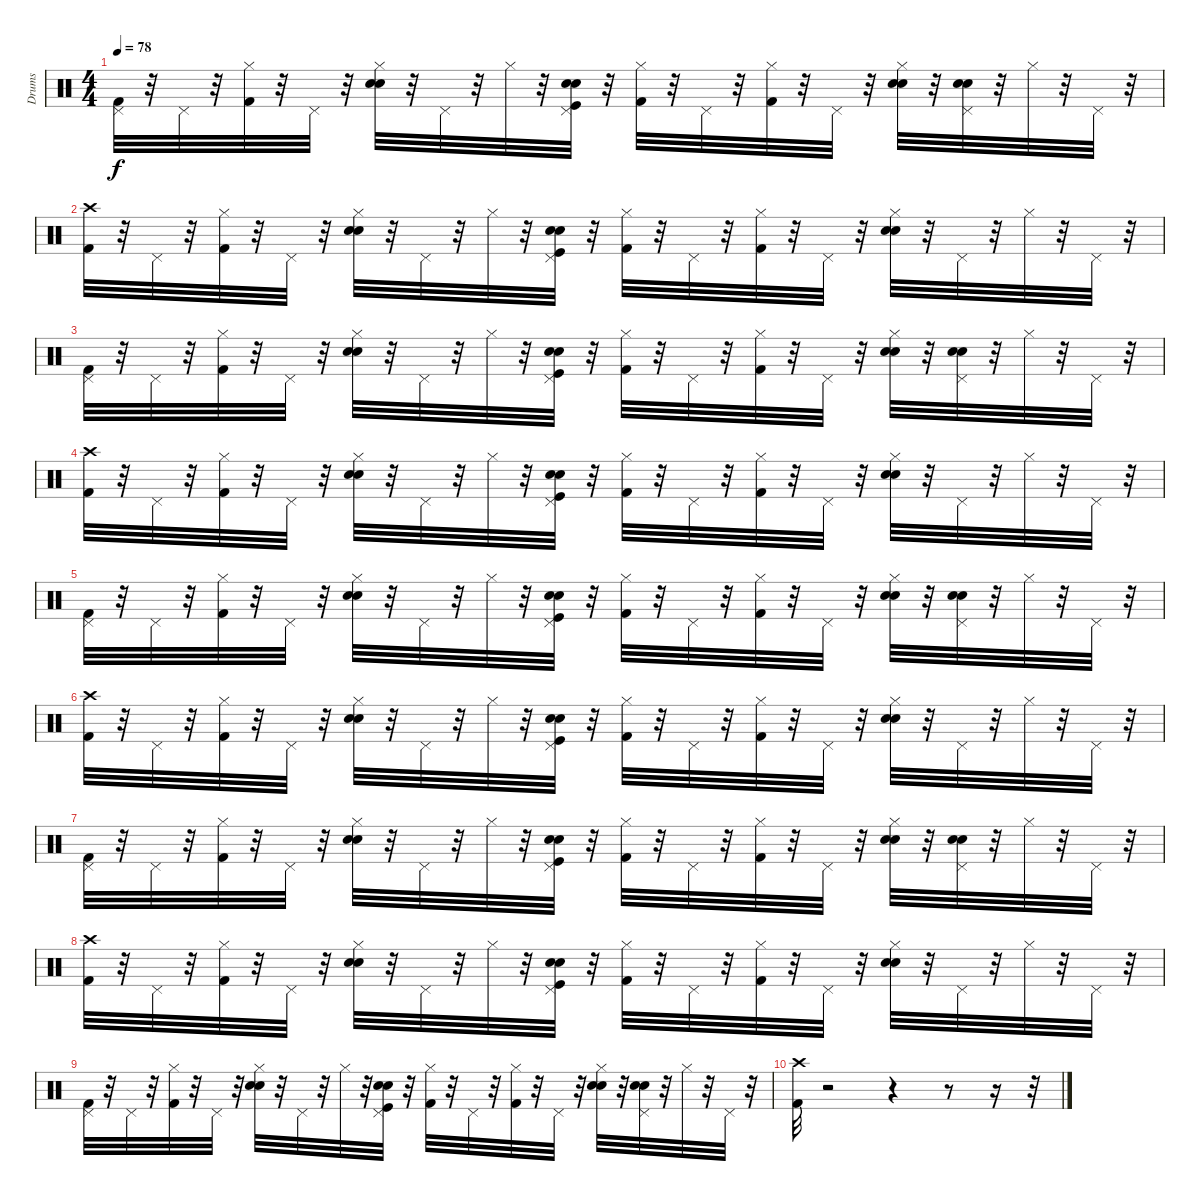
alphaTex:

\track ("Drums" "Drums") {instrument percussion}
\staff {score}
\articulation defaults
\ts (4 4)
\tempo 78
\clef neutral
\ks c
("Pedal Hi-Hat (hit)" "Kick (hit) 2").32{dy f} r.32 "Pedal Hi-Hat (hit)".32 r.32 ("Hi-Hat (closed)" "Kick (hit) 2").32 r.32 "Pedal Hi-Hat (hit)".32 r.32 ("Hi-Hat (closed)" "Hand Clap (hit)" "Electric Snare (hit)").32 r.32 "Pedal Hi-Hat (hit)".32 r.32 "Hi-Hat (closed)".32 r.32 ("Hand Clap (hit)" "Electric Snare (hit)" "Pedal Hi-Hat (hit)" "Kick (hit)").32 r.32 ("Hi-Hat (closed)" "Kick (hit) 2").32 r.32 "Pedal Hi-Hat (hit)".32 r.32 ("Hi-Hat (closed)" "Kick (hit) 2").32 r.32 "Pedal Hi-Hat (hit)".32 r.32 ("Hi-Hat (closed)" "Hand Clap (hit)" "Electric Snare (hit)").32 r.32 ("Hand Clap (hit)" "Electric Snare (hit)" "Pedal Hi-Hat (hit)").32 r.32 "Hi-Hat (closed)".32 r.32 "Pedal Hi-Hat (hit)".32 r.32 |
("Crash high (hit)" "Kick (hit) 2").32 r.32 "Pedal Hi-Hat (hit)".32 r.32 ("Hi-Hat (closed)" "Kick (hit) 2").32 r.32 "Pedal Hi-Hat (hit)".32 r.32 ("Hi-Hat (closed)" "Hand Clap (hit)" "Electric Snare (hit)").32 r.32 "Pedal Hi-Hat (hit)".32 r.32 "Hi-Hat (closed)".32 r.32 ("Hand Clap (hit)" "Electric Snare (hit)" "Pedal Hi-Hat (hit)" "Kick (hit)").32 r.32 ("Hi-Hat (closed)" "Kick (hit) 2").32 r.32 "Pedal Hi-Hat (hit)".32 r.32 ("Hi-Hat (closed)" "Kick (hit) 2").32 r.32 "Pedal Hi-Hat (hit)".32 r.32 ("Hi-Hat (closed)" "Hand Clap (hit)" "Electric Snare (hit)").32 r.32 "Pedal Hi-Hat (hit)".32 r.32 "Hi-Hat (closed)".32 r.32 "Pedal Hi-Hat (hit)".32 r.32 |
("Pedal Hi-Hat (hit)" "Kick (hit) 2").32 r.32 "Pedal Hi-Hat (hit)".32 r.32 ("Hi-Hat (closed)" "Kick (hit) 2").32 r.32 "Pedal Hi-Hat (hit)".32 r.32 ("Hi-Hat (closed)" "Hand Clap (hit)" "Electric Snare (hit)").32 r.32 "Pedal Hi-Hat (hit)".32 r.32 "Hi-Hat (closed)".32 r.32 ("Hand Clap (hit)" "Electric Snare (hit)" "Pedal Hi-Hat (hit)" "Kick (hit)").32 r.32 ("Hi-Hat (closed)" "Kick (hit) 2").32 r.32 "Pedal Hi-Hat (hit)".32 r.32 ("Hi-Hat (closed)" "Kick (hit) 2").32 r.32 "Pedal Hi-Hat (hit)".32 r.32 ("Hi-Hat (closed)" "Hand Clap (hit)" "Electric Snare (hit)").32 r.32 ("Hand Clap (hit)" "Electric Snare (hit)" "Pedal Hi-Hat (hit)").32 r.32 "Hi-Hat (closed)".32 r.32 "Pedal Hi-Hat (hit)".32 r.32 |
("Crash high (hit)" "Kick (hit) 2").32 r.32 "Pedal Hi-Hat (hit)".32 r.32 ("Hi-Hat (closed)" "Kick (hit) 2").32 r.32 "Pedal Hi-Hat (hit)".32 r.32 ("Hi-Hat (closed)" "Hand Clap (hit)" "Electric Snare (hit)").32 r.32 "Pedal Hi-Hat (hit)".32 r.32 "Hi-Hat (closed)".32 r.32 ("Hand Clap (hit)" "Electric Snare (hit)" "Pedal Hi-Hat (hit)" "Kick (hit)").32 r.32 ("Hi-Hat (closed)" "Kick (hit) 2").32 r.32 "Pedal Hi-Hat (hit)".32 r.32 ("Hi-Hat (closed)" "Kick (hit) 2").32 r.32 "Pedal Hi-Hat (hit)".32 r.32 ("Hi-Hat (closed)" "Hand Clap (hit)" "Electric Snare (hit)").32 r.32 "Pedal Hi-Hat (hit)".32 r.32 "Hi-Hat (closed)".32 r.32 "Pedal Hi-Hat (hit)".32 r.32 |
("Pedal Hi-Hat (hit)" "Kick (hit) 2").32 r.32 "Pedal Hi-Hat (hit)".32 r.32 ("Hi-Hat (closed)" "Kick (hit) 2").32 r.32 "Pedal Hi-Hat (hit)".32 r.32 ("Hi-Hat (closed)" "Hand Clap (hit)" "Electric Snare (hit)").32 r.32 "Pedal Hi-Hat (hit)".32 r.32 "Hi-Hat (closed)".32 r.32 ("Hand Clap (hit)" "Electric Snare (hit)" "Pedal Hi-Hat (hit)" "Kick (hit)").32 r.32 ("Hi-Hat (closed)" "Kick (hit) 2").32 r.32 "Pedal Hi-Hat (hit)".32 r.32 ("Hi-Hat (closed)" "Kick (hit) 2").32 r.32 "Pedal Hi-Hat (hit)".32 r.32 ("Hi-Hat (closed)" "Hand Clap (hit)" "Electric Snare (hit)").32 r.32 ("Hand Clap (hit)" "Electric Snare (hit)" "Pedal Hi-Hat (hit)").32 r.32 "Hi-Hat (closed)".32 r.32 "Pedal Hi-Hat (hit)".32 r.32 |
("Crash high (hit)" "Kick (hit) 2").32 r.32 "Pedal Hi-Hat (hit)".32 r.32 ("Hi-Hat (closed)" "Kick (hit) 2").32 r.32 "Pedal Hi-Hat (hit)".32 r.32 ("Hi-Hat (closed)" "Hand Clap (hit)" "Electric Snare (hit)").32 r.32 "Pedal Hi-Hat (hit)".32 r.32 "Hi-Hat (closed)".32 r.32 ("Hand Clap (hit)" "Electric Snare (hit)" "Pedal Hi-Hat (hit)" "Kick (hit)").32 r.32 ("Hi-Hat (closed)" "Kick (hit) 2").32 r.32 "Pedal Hi-Hat (hit)".32 r.32 ("Hi-Hat (closed)" "Kick (hit) 2").32 r.32 "Pedal Hi-Hat (hit)".32 r.32 ("Hi-Hat (closed)" "Hand Clap (hit)" "Electric Snare (hit)").32 r.32 "Pedal Hi-Hat (hit)".32 r.32 "Hi-Hat (closed)".32 r.32 "Pedal Hi-Hat (hit)".32 r.32 |
("Pedal Hi-Hat (hit)" "Kick (hit) 2").32 r.32 "Pedal Hi-Hat (hit)".32 r.32 ("Hi-Hat (closed)" "Kick (hit) 2").32 r.32 "Pedal Hi-Hat (hit)".32 r.32 ("Hi-Hat (closed)" "Hand Clap (hit)" "Electric Snare (hit)").32 r.32 "Pedal Hi-Hat (hit)".32 r.32 "Hi-Hat (closed)".32 r.32 ("Hand Clap (hit)" "Electric Snare (hit)" "Pedal Hi-Hat (hit)" "Kick (hit)").32 r.32 ("Hi-Hat (closed)" "Kick (hit) 2").32 r.32 "Pedal Hi-Hat (hit)".32 r.32 ("Hi-Hat (closed)" "Kick (hit) 2").32 r.32 "Pedal Hi-Hat (hit)".32 r.32 ("Hi-Hat (closed)" "Hand Clap (hit)" "Electric Snare (hit)").32 r.32 ("Hand Clap (hit)" "Electric Snare (hit)" "Pedal Hi-Hat (hit)").32 r.32 "Hi-Hat (closed)".32 r.32 "Pedal Hi-Hat (hit)".32 r.32 |
("Crash high (hit)" "Kick (hit) 2").32 r.32 "Pedal Hi-Hat (hit)".32 r.32 ("Hi-Hat (closed)" "Kick (hit) 2").32 r.32 "Pedal Hi-Hat (hit)".32 r.32 ("Hi-Hat (closed)" "Hand Clap (hit)" "Electric Snare (hit)").32 r.32 "Pedal Hi-Hat (hit)".32 r.32 "Hi-Hat (closed)".32 r.32 ("Hand Clap (hit)" "Electric Snare (hit)" "Pedal Hi-Hat (hit)" "Kick (hit)").32 r.32 ("Hi-Hat (closed)" "Kick (hit) 2").32 r.32 "Pedal Hi-Hat (hit)".32 r.32 ("Hi-Hat (closed)" "Kick (hit) 2").32 r.32 "Pedal Hi-Hat (hit)".32 r.32 ("Hi-Hat (closed)" "Hand Clap (hit)" "Electric Snare (hit)").32 r.32 "Pedal Hi-Hat (hit)".32 r.32 "Hi-Hat (closed)".32 r.32 "Pedal Hi-Hat (hit)".32 r.32 |
("Pedal Hi-Hat (hit)" "Kick (hit) 2").32 r.32 "Pedal Hi-Hat (hit)".32 r.32 ("Hi-Hat (closed)" "Kick (hit) 2").32 r.32 "Pedal Hi-Hat (hit)".32 r.32 ("Hi-Hat (closed)" "Hand Clap (hit)" "Electric Snare (hit)").32 r.32 "Pedal Hi-Hat (hit)".32 r.32 "Hi-Hat (closed)".32 r.32 ("Hand Clap (hit)" "Electric Snare (hit)" "Pedal Hi-Hat (hit)" "Kick (hit)").32 r.32 ("Hi-Hat (closed)" "Kick (hit) 2").32 r.32 "Pedal Hi-Hat (hit)".32 r.32 ("Hi-Hat (closed)" "Kick (hit) 2").32 r.32 "Pedal Hi-Hat (hit)".32 r.32 ("Hi-Hat (closed)" "Hand Clap (hit)" "Electric Snare (hit)").32 r.32 ("Hand Clap (hit)" "Electric Snare (hit)" "Pedal Hi-Hat (hit)").32 r.32 "Hi-Hat (closed)".32 r.32 "Pedal Hi-Hat (hit)".32 r.32 |
("Crash high (hit)" "Kick (hit) 2").32 r.2 r.4 r.8 r.16 r.32
